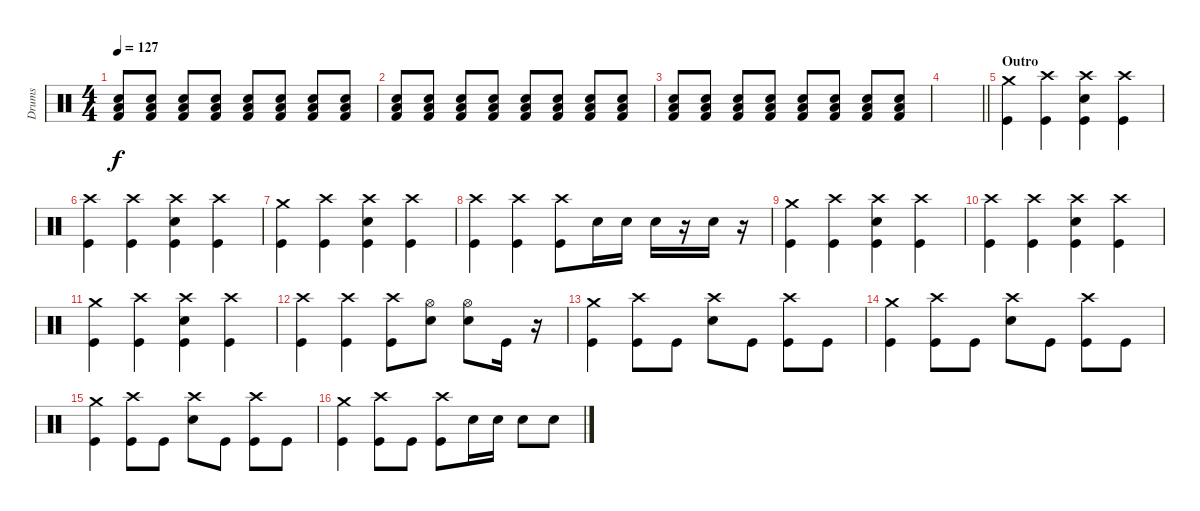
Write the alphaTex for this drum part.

\track ("Drums" "Drums") {instrument percussion}
\staff {score}
\articulation defaults
\ts (4 4)
\tempo 127
\clef neutral
\ks c
("Low Floor Tom (hit)" "Snare (hit) 2" "Kick (hit) 2").8{dy f volume 13} ("Low Floor Tom (hit)" "Snare (hit) 2" "Kick (hit) 2").8 ("Low Floor Tom (hit)" "Snare (hit) 2" "Kick (hit) 2").8 ("Low Floor Tom (hit)" "Snare (hit) 2" "Kick (hit) 2").8 ("Low Floor Tom (hit)" "Snare (hit) 2" "Kick (hit) 2").8 ("Low Floor Tom (hit)" "Snare (hit) 2" "Kick (hit) 2").8 ("Low Floor Tom (hit)" "Snare (hit) 2" "Kick (hit) 2").8 ("Low Floor Tom (hit)" "Snare (hit) 2" "Kick (hit) 2").8 |
("Low Floor Tom (hit)" "Snare (hit) 2" "Kick (hit) 2").8 ("Low Floor Tom (hit)" "Snare (hit) 2" "Kick (hit) 2").8 ("Low Floor Tom (hit)" "Snare (hit) 2" "Kick (hit) 2").8 ("Low Floor Tom (hit)" "Snare (hit) 2" "Kick (hit) 2").8 ("Low Floor Tom (hit)" "Snare (hit) 2" "Kick (hit) 2").8 ("Low Floor Tom (hit)" "Snare (hit) 2" "Kick (hit) 2").8 ("Low Floor Tom (hit)" "Snare (hit) 2" "Kick (hit) 2").8 ("Low Floor Tom (hit)" "Snare (hit) 2" "Kick (hit) 2").8 |
("Low Floor Tom (hit)" "Snare (hit) 2" "Kick (hit) 2").8 ("Low Floor Tom (hit)" "Snare (hit) 2" "Kick (hit) 2").8 ("Low Floor Tom (hit)" "Snare (hit) 2" "Kick (hit) 2").8 ("Low Floor Tom (hit)" "Snare (hit) 2" "Kick (hit) 2").8 ("Low Floor Tom (hit)" "Snare (hit) 2" "Kick (hit) 2").8 ("Low Floor Tom (hit)" "Snare (hit) 2" "Kick (hit) 2").8 ("Low Floor Tom (hit)" "Snare (hit) 2" "Kick (hit) 2").8 ("Low Floor Tom (hit)" "Snare (hit) 2" "Kick (hit) 2").8 |
\barLineRight lightlight
|
\section ("" "Outro")
("Crash medium (hit)" "Kick (hit)").4 ("Crash high (hit)" "Kick (hit)").4 ("Crash high (hit)" "Kick (hit)" "Snare (hit) 2").4 ("Crash high (hit)" "Kick (hit)").4 |
("Crash high (hit)" "Kick (hit)").4 ("Crash high (hit)" "Kick (hit)").4 ("Crash high (hit)" "Kick (hit)" "Snare (hit) 2").4 ("Crash high (hit)" "Kick (hit)").4 |
("Crash medium (hit)" "Kick (hit)").4 ("Crash high (hit)" "Kick (hit)").4 ("Crash high (hit)" "Kick (hit)" "Snare (hit) 2").4 ("Crash high (hit)" "Kick (hit)").4 |
("Crash high (hit)" "Kick (hit)").4 ("Crash high (hit)" "Kick (hit)").4 ("Crash high (hit)" "Kick (hit)").8 "Snare (hit) 2".16 "Snare (hit) 2".16 "Snare (hit) 2".16 r.16 "Snare (hit) 2".16 r.16 |
("Crash medium (hit)" "Kick (hit)").4 ("Crash high (hit)" "Kick (hit)").4 ("Crash high (hit)" "Kick (hit)" "Snare (hit) 2").4 ("Crash high (hit)" "Kick (hit)").4 |
("Crash high (hit)" "Kick (hit)").4 ("Crash high (hit)" "Kick (hit)").4 ("Crash high (hit)" "Kick (hit)" "Snare (hit) 2").4 ("Crash high (hit)" "Kick (hit)").4 |
("Crash medium (hit)" "Kick (hit)").4 ("Crash high (hit)" "Kick (hit)").4 ("Crash high (hit)" "Kick (hit)" "Snare (hit) 2").4 ("Crash high (hit)" "Kick (hit)").4 |
("Crash high (hit)" "Kick (hit)").4 ("Crash high (hit)" "Kick (hit)").4 ("Crash high (hit)" "Kick (hit)").8 ("Hi-Hat (open)" "Snare (hit) 2").8 ("Hi-Hat (open)" "Snare (hit) 2").8 "Kick (hit)".16 r.16 |
("Crash medium (hit)" "Kick (hit)").4 ("Crash high (hit)" "Kick (hit)").8 "Kick (hit)".8 ("Crash high (hit)" "Snare (hit) 2").8 "Kick (hit)".8 ("Kick (hit)" "Crash high (hit)").8 "Kick (hit)".8 |
("Kick (hit)" "Crash medium (hit)").4 ("Kick (hit)" "Crash high (hit)").8 "Kick (hit)".8 ("Snare (hit) 2" "Crash high (hit)").8 "Kick (hit)".8 ("Kick (hit)" "Crash high (hit)").8 "Kick (hit)".8 |
("Kick (hit)" "Crash medium (hit)").4 ("Kick (hit)" "Crash high (hit)").8 "Kick (hit)".8 ("Snare (hit) 2" "Crash high (hit)").8 "Kick (hit)".8 ("Kick (hit)" "Crash high (hit)").8 "Kick (hit)".8 |
("Kick (hit)" "Crash medium (hit)").4 ("Kick (hit)" "Crash high (hit)").8 "Kick (hit)".8 ("Kick (hit)" "Crash high (hit)").8 "Snare (hit) 2".16 "Snare (hit) 2".16 "Snare (hit) 2".8 "Snare (hit) 2".8
